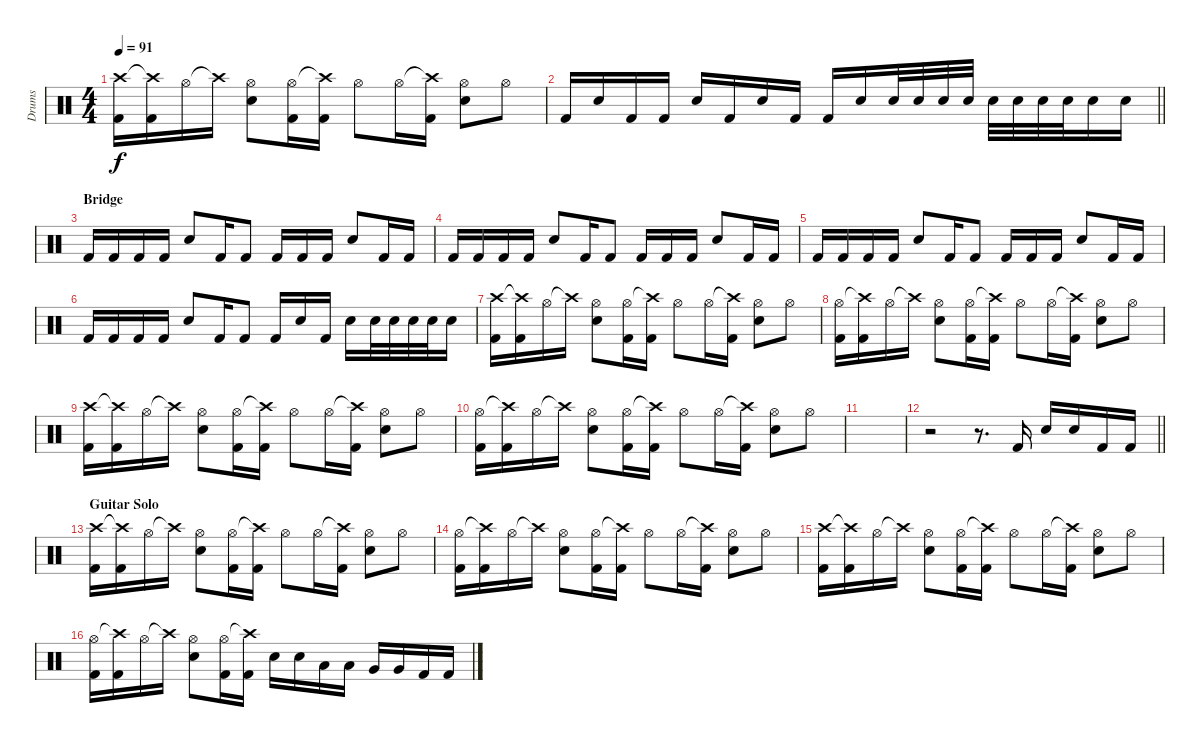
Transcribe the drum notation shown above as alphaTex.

\track ("Drums" "Drums") {instrument percussion}
\staff {score}
\articulation defaults
\ts (4 4)
\tempo 91
\clef neutral
\ks c
("Crash high (hit)" "Kick (hit) 2").16{dy f} ("Crash high (hit)"{t} "Kick (hit) 2").16 "Hi-Hat (open)".16 "Crash high (hit)"{t}.16 ("Hi-Hat (open)" "Electric Snare (hit)").8 ("Hi-Hat (open)" "Kick (hit) 2").16 ("Crash high (hit)"{t} "Kick (hit) 2").16 "Hi-Hat (open)".8 "Hi-Hat (open)".16 ("Crash high (hit)"{t} "Kick (hit) 2").16 ("Hi-Hat (open)" "Electric Snare (hit)").8 "Hi-Hat (open)".8 |
\barLineRight lightlight "Kick (hit) 2".16 "Electric Snare (hit)".16 "Kick (hit) 2".16 "Kick (hit) 2".16 "Electric Snare (hit)".16 "Kick (hit) 2".16 "Electric Snare (hit)".16 "Kick (hit) 2".16 "Kick (hit) 2".16 "Electric Snare (hit)".16 "Electric Snare (hit)".32 "Electric Snare (hit)".32 "Electric Snare (hit)".32 "Electric Snare (hit)".32 "Electric Snare (hit)".32 "Electric Snare (hit)".32 "Electric Snare (hit)".32 "Electric Snare (hit)".32 "Electric Snare (hit)".16 "Electric Snare (hit)".16
|
\section ("" "Bridge")
"Kick (hit) 2".16 "Kick (hit) 2".16 "Kick (hit) 2".16 "Kick (hit) 2".16 "Electric Snare (hit)".8 "Kick (hit) 2".16 "Kick (hit) 2".8 "Kick (hit) 2".16 "Kick (hit) 2".16 "Kick (hit) 2".16 "Electric Snare (hit)".8 "Kick (hit) 2".16 "Kick (hit) 2".16 |
"Kick (hit) 2".16 "Kick (hit) 2".16 "Kick (hit) 2".16 "Kick (hit) 2".16 "Electric Snare (hit)".8 "Kick (hit) 2".16 "Kick (hit) 2".8 "Kick (hit) 2".16 "Kick (hit) 2".16 "Kick (hit) 2".16 "Electric Snare (hit)".8 "Kick (hit) 2".16 "Kick (hit) 2".16 |
"Kick (hit) 2".16 "Kick (hit) 2".16 "Kick (hit) 2".16 "Kick (hit) 2".16 "Electric Snare (hit)".8 "Kick (hit) 2".16 "Kick (hit) 2".8 "Kick (hit) 2".16 "Kick (hit) 2".16 "Kick (hit) 2".16 "Electric Snare (hit)".8 "Kick (hit) 2".16 "Kick (hit) 2".16 |
"Kick (hit) 2".16 "Kick (hit) 2".16 "Kick (hit) 2".16 "Kick (hit) 2".16 "Electric Snare (hit)".8 "Kick (hit) 2".16 "Kick (hit) 2".8 "Kick (hit) 2".16 "Electric Snare (hit)".16 "Kick (hit) 2".16 "Electric Snare (hit)".16 "Electric Snare (hit)".32 "Electric Snare (hit)".32 "Electric Snare (hit)".32 "Electric Snare (hit)".32 "Electric Snare (hit)".16 |
("Crash high (hit)" "Kick (hit) 2").16 ("Crash high (hit)"{t} "Kick (hit) 2").16 "Hi-Hat (open)".16 "Crash high (hit)"{t}.16 ("Hi-Hat (open)" "Electric Snare (hit)").8 ("Hi-Hat (open)" "Kick (hit) 2").16 ("Crash high (hit)"{t} "Kick (hit) 2").16 "Hi-Hat (open)".8 "Hi-Hat (open)".16 ("Crash high (hit)"{t} "Kick (hit) 2").16 ("Hi-Hat (open)" "Electric Snare (hit)").8 "Hi-Hat (open)".8 |
("Hi-Hat (open)" "Kick (hit) 2").16 ("Crash high (hit)"{t} "Kick (hit) 2").16 "Hi-Hat (open)".16 "Crash high (hit)"{t}.16 ("Hi-Hat (open)" "Electric Snare (hit)").8 ("Hi-Hat (open)" "Kick (hit) 2").16 ("Crash high (hit)"{t} "Kick (hit) 2").16 "Hi-Hat (open)".8 "Hi-Hat (open)".16 ("Crash high (hit)"{t} "Kick (hit) 2").16 ("Hi-Hat (open)" "Electric Snare (hit)").8 "Hi-Hat (open)".8 |
("Crash high (hit)" "Kick (hit) 2").16 ("Crash high (hit)"{t} "Kick (hit) 2").16 "Hi-Hat (open)".16 "Crash high (hit)"{t}.16 ("Hi-Hat (open)" "Electric Snare (hit)").8 ("Hi-Hat (open)" "Kick (hit) 2").16 ("Crash high (hit)"{t} "Kick (hit) 2").16 "Hi-Hat (open)".8 "Hi-Hat (open)".16 ("Crash high (hit)"{t} "Kick (hit) 2").16 ("Hi-Hat (open)" "Electric Snare (hit)").8 "Hi-Hat (open)".8 |
("Hi-Hat (open)" "Kick (hit) 2").16 ("Crash high (hit)"{t} "Kick (hit) 2").16 "Hi-Hat (open)".16 "Crash high (hit)"{t}.16 ("Hi-Hat (open)" "Electric Snare (hit)").8 ("Hi-Hat (open)" "Kick (hit) 2").16 ("Crash high (hit)"{t} "Kick (hit) 2").16 "Hi-Hat (open)".8 "Hi-Hat (open)".16 ("Crash high (hit)"{t} "Kick (hit) 2").16 ("Hi-Hat (open)" "Electric Snare (hit)").8 "Hi-Hat (open)".8 |
|
\barLineRight lightlight
r.2 r.8{d} "Kick (hit) 2".16 "Electric Snare (hit)".16 "Electric Snare (hit)".16 "Kick (hit) 2".16 "Kick (hit) 2".16 |
\section ("" "Guitar Solo")
("Crash high (hit)" "Kick (hit) 2").16 ("Crash high (hit)"{t} "Kick (hit) 2").16 "Hi-Hat (open)".16 "Crash high (hit)"{t}.16 ("Hi-Hat (open)" "Electric Snare (hit)").8 ("Hi-Hat (open)" "Kick (hit) 2").16 ("Crash high (hit)"{t} "Kick (hit) 2").16 "Hi-Hat (open)".8 "Hi-Hat (open)".16 ("Crash high (hit)"{t} "Kick (hit) 2").16 ("Hi-Hat (open)" "Electric Snare (hit)").8 "Hi-Hat (open)".8 |
("Hi-Hat (open)" "Kick (hit) 2").16 ("Crash high (hit)"{t} "Kick (hit) 2").16 "Hi-Hat (open)".16 "Crash high (hit)"{t}.16 ("Hi-Hat (open)" "Electric Snare (hit)").8 ("Hi-Hat (open)" "Kick (hit) 2").16 ("Crash high (hit)"{t} "Kick (hit) 2").16 "Hi-Hat (open)".8 "Hi-Hat (open)".16 ("Crash high (hit)"{t} "Kick (hit) 2").16 ("Hi-Hat (open)" "Electric Snare (hit)").8 "Hi-Hat (open)".8 |
("Crash high (hit)" "Kick (hit) 2").16 ("Crash high (hit)"{t} "Kick (hit) 2").16 "Hi-Hat (open)".16 "Crash high (hit)"{t}.16 ("Hi-Hat (open)" "Electric Snare (hit)").8 ("Hi-Hat (open)" "Kick (hit) 2").16 ("Crash high (hit)"{t} "Kick (hit) 2").16 "Hi-Hat (open)".8 "Hi-Hat (open)".16 ("Crash high (hit)"{t} "Kick (hit) 2").16 ("Hi-Hat (open)" "Electric Snare (hit)").8 "Hi-Hat (open)".8 |
("Hi-Hat (open)" "Kick (hit) 2").16 ("Crash high (hit)"{t} "Kick (hit) 2").16 "Hi-Hat (open)".16 "Crash high (hit)"{t}.16 ("Hi-Hat (open)" "Electric Snare (hit)").8 ("Hi-Hat (open)" "Kick (hit) 2").16 ("Crash high (hit)"{t} "Kick (hit) 2").16 "Electric Snare (hit)".16 "Electric Snare (hit)".16 "Low Tom (hit)".16 "Low Tom (hit)".16 "Very Low Tom (hit)".16 "Very Low Tom (hit)".16 "Kick (hit) 2".16 "Kick (hit) 2".16
